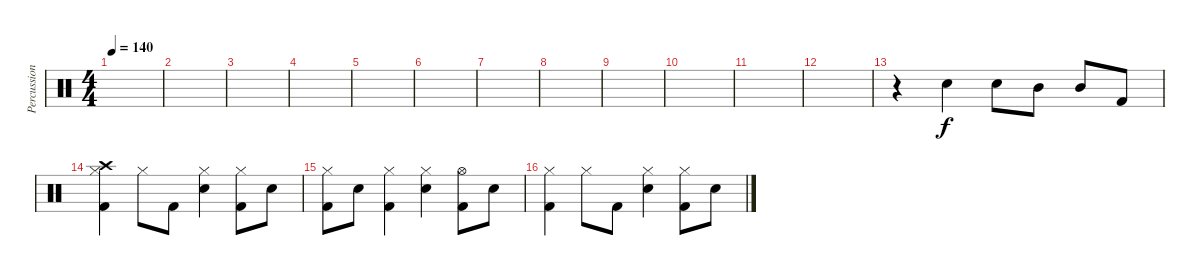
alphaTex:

\track ("Percussion" "Percussion") {instrument percussion}
\staff {score}
\articulation defaults
\ts (4 4)
\tempo 140
\clef neutral
\ks c
|
|
|
|
|
|
|
|
|
|
|
|
r.4{volume 13} "Electric Snare (hit)".4 "Electric Snare (hit)".8 "Mid Tom (hit)".8 "Mid Tom (hit)".8 "Kick (hit) 2".8 |
("Crash high (hit)" "Hi-Hat (closed)" "Kick (hit) 2").4 "Hi-Hat (closed)".8 "Kick (hit) 2".8 ("Hi-Hat (closed)" "Electric Snare (hit)").4 ("Hi-Hat (closed)" "Kick (hit) 2").8 "Electric Snare (hit)".8 |
("Hi-Hat (closed)" "Kick (hit) 2").8 "Electric Snare (hit)".8 ("Hi-Hat (closed)" "Kick (hit) 2").4 ("Hi-Hat (closed)" "Electric Snare (hit)").4 ("Hi-Hat (open)" "Kick (hit) 2").8 "Electric Snare (hit)".8 |
("Hi-Hat (closed)" "Kick (hit) 2").4 "Hi-Hat (closed)".8 "Kick (hit) 2".8 ("Hi-Hat (closed)" "Electric Snare (hit)").4 ("Hi-Hat (closed)" "Kick (hit) 2").8 "Electric Snare (hit)".8
